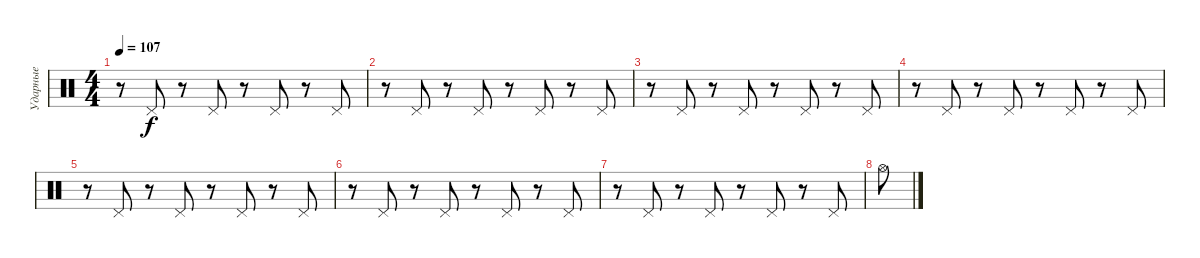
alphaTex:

\track ("Ударные" "Ударные") {instrument percussion}
\staff {score}
\articulation defaults
\ts (4 4)
\tempo 107
\clef neutral
\ks c
r.8{dy f} "Pedal Hi-Hat (hit)".8 r.8 "Pedal Hi-Hat (hit)".8 r.8 "Pedal Hi-Hat (hit)".8 r.8 "Pedal Hi-Hat (hit)".8 |
r.8 "Pedal Hi-Hat (hit)".8 r.8 "Pedal Hi-Hat (hit)".8 r.8 "Pedal Hi-Hat (hit)".8 r.8 "Pedal Hi-Hat (hit)".8 |
r.8 "Pedal Hi-Hat (hit)".8 r.8 "Pedal Hi-Hat (hit)".8 r.8 "Pedal Hi-Hat (hit)".8 r.8 "Pedal Hi-Hat (hit)".8 |
r.8 "Pedal Hi-Hat (hit)".8 r.8 "Pedal Hi-Hat (hit)".8 r.8 "Pedal Hi-Hat (hit)".8 r.8 "Pedal Hi-Hat (hit)".8 |
r.8 "Pedal Hi-Hat (hit)".8 r.8 "Pedal Hi-Hat (hit)".8 r.8 "Pedal Hi-Hat (hit)".8 r.8 "Pedal Hi-Hat (hit)".8 |
r.8 "Pedal Hi-Hat (hit)".8 r.8 "Pedal Hi-Hat (hit)".8 r.8 "Pedal Hi-Hat (hit)".8 r.8 "Pedal Hi-Hat (hit)".8 |
r.8 "Pedal Hi-Hat (hit)".8 r.8 "Pedal Hi-Hat (hit)".8 r.8 "Pedal Hi-Hat (hit)".8 r.8 "Pedal Hi-Hat (hit)".8 |
"Hi-Hat (open)".8
